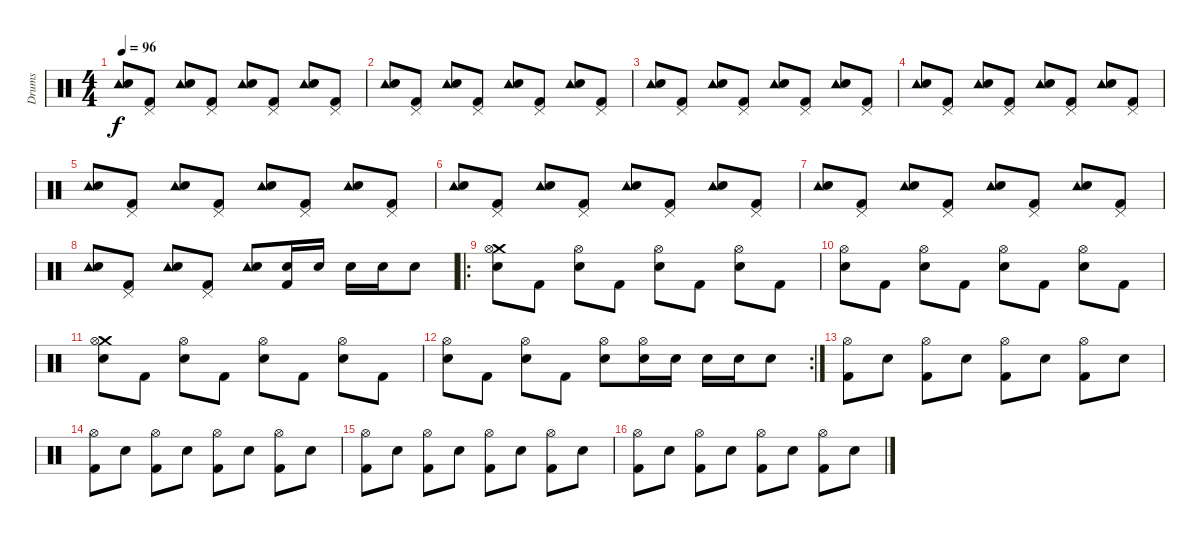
\track ("Drums" "Drums") {instrument percussion}
\staff {score}
\articulation defaults
\ts (4 4)
\tempo 96
\clef neutral
\ks c
("Tambourine (hit)" "Electric Snare (hit)").8{dy f} ("Pedal Hi-Hat (hit)" "Kick (hit) 2").8 ("Tambourine (hit)" "Electric Snare (hit)").8 ("Pedal Hi-Hat (hit)" "Kick (hit) 2").8 ("Tambourine (hit)" "Electric Snare (hit)").8 ("Pedal Hi-Hat (hit)" "Kick (hit) 2").8 ("Tambourine (hit)" "Electric Snare (hit)").8 ("Pedal Hi-Hat (hit)" "Kick (hit) 2").8 |
("Tambourine (hit)" "Electric Snare (hit)").8 ("Pedal Hi-Hat (hit)" "Kick (hit) 2").8 ("Tambourine (hit)" "Electric Snare (hit)").8 ("Pedal Hi-Hat (hit)" "Kick (hit) 2").8 ("Tambourine (hit)" "Electric Snare (hit)").8 ("Pedal Hi-Hat (hit)" "Kick (hit) 2").8 ("Tambourine (hit)" "Electric Snare (hit)").8 ("Pedal Hi-Hat (hit)" "Kick (hit) 2").8 |
("Tambourine (hit)" "Electric Snare (hit)").8 ("Pedal Hi-Hat (hit)" "Kick (hit) 2").8 ("Tambourine (hit)" "Electric Snare (hit)").8 ("Pedal Hi-Hat (hit)" "Kick (hit) 2").8 ("Tambourine (hit)" "Electric Snare (hit)").8 ("Pedal Hi-Hat (hit)" "Kick (hit) 2").8 ("Tambourine (hit)" "Electric Snare (hit)").8 ("Pedal Hi-Hat (hit)" "Kick (hit) 2").8 |
("Tambourine (hit)" "Electric Snare (hit)").8 ("Pedal Hi-Hat (hit)" "Kick (hit) 2").8 ("Tambourine (hit)" "Electric Snare (hit)").8 ("Pedal Hi-Hat (hit)" "Kick (hit) 2").8 ("Tambourine (hit)" "Electric Snare (hit)").8 ("Pedal Hi-Hat (hit)" "Kick (hit) 2").8 ("Tambourine (hit)" "Electric Snare (hit)").8 ("Pedal Hi-Hat (hit)" "Kick (hit) 2").8 |
("Tambourine (hit)" "Electric Snare (hit)").8 ("Pedal Hi-Hat (hit)" "Kick (hit) 2").8 ("Tambourine (hit)" "Electric Snare (hit)").8 ("Pedal Hi-Hat (hit)" "Kick (hit) 2").8 ("Tambourine (hit)" "Electric Snare (hit)").8 ("Pedal Hi-Hat (hit)" "Kick (hit) 2").8 ("Tambourine (hit)" "Electric Snare (hit)").8 ("Pedal Hi-Hat (hit)" "Kick (hit) 2").8 |
("Tambourine (hit)" "Electric Snare (hit)").8 ("Pedal Hi-Hat (hit)" "Kick (hit) 2").8 ("Tambourine (hit)" "Electric Snare (hit)").8 ("Pedal Hi-Hat (hit)" "Kick (hit) 2").8 ("Tambourine (hit)" "Electric Snare (hit)").8 ("Pedal Hi-Hat (hit)" "Kick (hit) 2").8 ("Tambourine (hit)" "Electric Snare (hit)").8 ("Pedal Hi-Hat (hit)" "Kick (hit) 2").8 |
("Tambourine (hit)" "Electric Snare (hit)").8 ("Pedal Hi-Hat (hit)" "Kick (hit) 2").8 ("Tambourine (hit)" "Electric Snare (hit)").8 ("Pedal Hi-Hat (hit)" "Kick (hit) 2").8 ("Tambourine (hit)" "Electric Snare (hit)").8 ("Pedal Hi-Hat (hit)" "Kick (hit) 2").8 ("Tambourine (hit)" "Electric Snare (hit)").8 ("Pedal Hi-Hat (hit)" "Kick (hit) 2").8 |
("Tambourine (hit)" "Electric Snare (hit)").8 ("Pedal Hi-Hat (hit)" "Kick (hit) 2").8 ("Tambourine (hit)" "Electric Snare (hit)").8 ("Pedal Hi-Hat (hit)" "Kick (hit) 2").8 ("Tambourine (hit)" "Electric Snare (hit)").8 ("Snare (hit) 2" "Kick (hit) 2").16 "Snare (hit) 2".16 "Snare (hit) 2".16 "Snare (hit) 2".16 "Snare (hit) 2".8 |
\ro
("Crash medium (hit)" "Hi-Hat (open)" "Electric Snare (hit)").8 "Kick (hit) 2".8 ("Hi-Hat (open)" "Electric Snare (hit)").8 "Kick (hit) 2".8 ("Hi-Hat (open)" "Electric Snare (hit)").8 "Kick (hit) 2".8 ("Hi-Hat (open)" "Electric Snare (hit)").8 "Kick (hit) 2".8 |
("Hi-Hat (open)" "Electric Snare (hit)").8 "Kick (hit) 2".8 ("Hi-Hat (open)" "Electric Snare (hit)").8 "Kick (hit) 2".8 ("Hi-Hat (open)" "Electric Snare (hit)").8 "Kick (hit) 2".8 ("Hi-Hat (open)" "Electric Snare (hit)").8 "Kick (hit) 2".8 |
("Crash medium (hit)" "Hi-Hat (open)" "Electric Snare (hit)").8 "Kick (hit) 2".8 ("Hi-Hat (open)" "Electric Snare (hit)").8 "Kick (hit) 2".8 ("Hi-Hat (open)" "Electric Snare (hit)").8 "Kick (hit) 2".8 ("Hi-Hat (open)" "Electric Snare (hit)").8 "Kick (hit) 2".8 |
\rc 2
("Hi-Hat (open)" "Electric Snare (hit)").8 "Kick (hit) 2".8 ("Hi-Hat (open)" "Electric Snare (hit)").8 "Kick (hit) 2".8 ("Hi-Hat (open)" "Electric Snare (hit)").8 ("Hi-Hat (open)" "Snare (hit) 2").16 "Snare (hit) 2".16 "Snare (hit) 2".16 "Snare (hit) 2".16 "Snare (hit) 2".8 |
("Hi-Hat (open)" "Kick (hit) 2").8 "Electric Snare (hit)".8 ("Hi-Hat (open)" "Kick (hit) 2").8 "Electric Snare (hit)".8 ("Hi-Hat (open)" "Kick (hit) 2").8 "Electric Snare (hit)".8 ("Hi-Hat (open)" "Kick (hit) 2").8 "Electric Snare (hit)".8 |
("Hi-Hat (open)" "Kick (hit) 2").8 "Electric Snare (hit)".8 ("Hi-Hat (open)" "Kick (hit) 2").8 "Electric Snare (hit)".8 ("Hi-Hat (open)" "Kick (hit) 2").8 "Electric Snare (hit)".8 ("Hi-Hat (open)" "Kick (hit) 2").8 "Electric Snare (hit)".8 |
("Hi-Hat (open)" "Kick (hit) 2").8 "Electric Snare (hit)".8 ("Hi-Hat (open)" "Kick (hit) 2").8 "Electric Snare (hit)".8 ("Hi-Hat (open)" "Kick (hit) 2").8 "Electric Snare (hit)".8 ("Hi-Hat (open)" "Kick (hit) 2").8 "Electric Snare (hit)".8 |
("Hi-Hat (open)" "Kick (hit) 2").8 "Electric Snare (hit)".8 ("Hi-Hat (open)" "Kick (hit) 2").8 "Electric Snare (hit)".8 ("Hi-Hat (open)" "Kick (hit) 2").8 "Electric Snare (hit)".8 ("Hi-Hat (open)" "Kick (hit) 2").8 "Electric Snare (hit)".8
